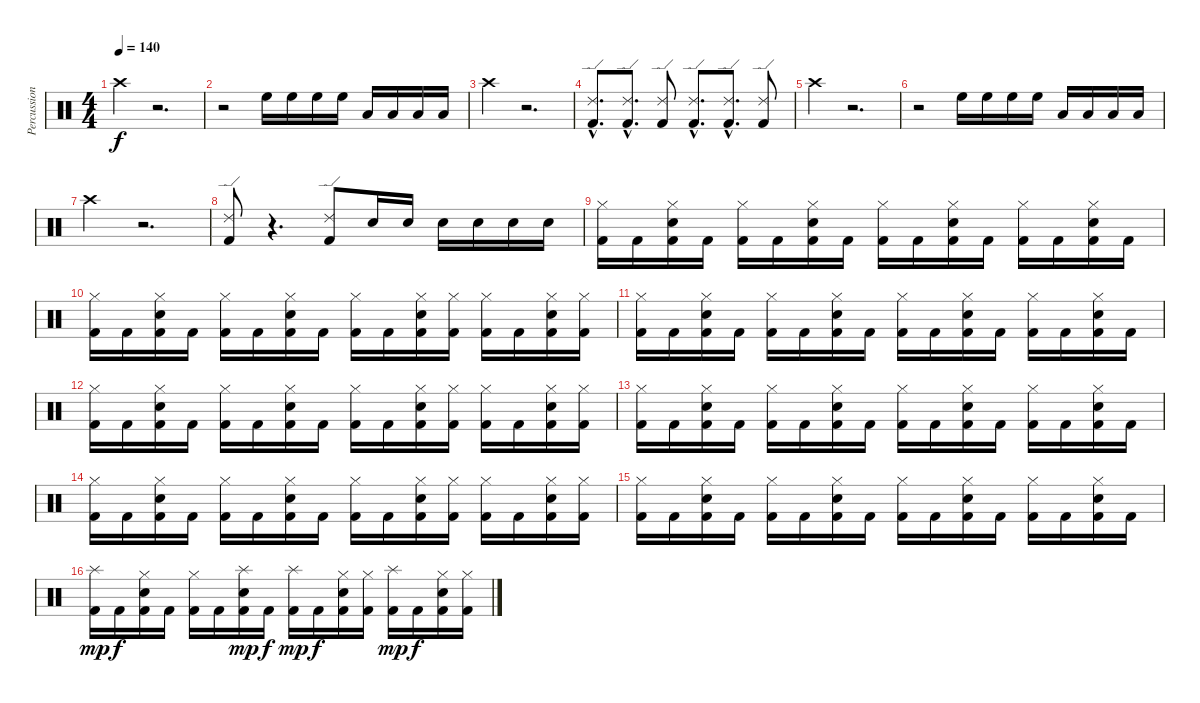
\track ("Percussion" "Percussion") {instrument percussion}
\staff {score}
\articulation defaults
\ts (4 4)
\tempo 140
\clef neutral
\ks c "Crash high (hit)".4{dy f}
r.2{d} |
r.2 "High Floor Tom (hit)".16 "High Floor Tom (hit)".16 "High Floor Tom (hit)".16 "High Floor Tom (hit)".16 "Low Tom (hit)".16 "Low Tom (hit)".16 "Low Tom (hit)".16 "Low Tom (hit)".16 |
"Crash high (hit)".4 r.2{d} |
("Ride (edge) 2"{hac} "Kick (hit) 2"{hac}).8{d} ("Ride (edge) 2"{hac} "Kick (hit) 2"{hac}).8{d} ("Ride (edge) 2" "Kick (hit) 2").8 ("Ride (edge) 2"{hac} "Kick (hit) 2"{hac}).8{d} ("Ride (edge) 2"{hac} "Kick (hit) 2"{hac}).8{d} ("Ride (edge) 2" "Kick (hit) 2").8 |
"Crash high (hit)".4 r.2{d} |
r.2 "High Floor Tom (hit)".16 "High Floor Tom (hit)".16 "High Floor Tom (hit)".16 "High Floor Tom (hit)".16 "Low Tom (hit)".16 "Low Tom (hit)".16 "Low Tom (hit)".16 "Low Tom (hit)".16 |
"Crash high (hit)".4 r.2{d} |
("Ride (edge) 2" "Kick (hit) 2").8 r.4{d} ("Ride (edge) 2" "Kick (hit) 2").8 "Electric Snare (hit)".16 "Electric Snare (hit)".16 "Electric Snare (hit)".16 "Electric Snare (hit)".16 "Electric Snare (hit)".16 "Electric Snare (hit)".16 |
("Hi-Hat (closed)" "Kick (hit) 2").16 "Kick (hit) 2".16 ("Hi-Hat (closed)" "Electric Snare (hit)" "Kick (hit) 2").16 "Kick (hit) 2".16 ("Hi-Hat (closed)" "Kick (hit) 2").16 "Kick (hit) 2".16 ("Hi-Hat (closed)" "Electric Snare (hit)" "Kick (hit) 2").16 "Kick (hit) 2".16 ("Hi-Hat (closed)" "Kick (hit) 2").16 "Kick (hit) 2".16 ("Hi-Hat (closed)" "Electric Snare (hit)" "Kick (hit) 2").16 "Kick (hit) 2".16 ("Hi-Hat (closed)" "Kick (hit) 2").16 "Kick (hit) 2".16 ("Hi-Hat (closed)" "Electric Snare (hit)" "Kick (hit) 2").16 "Kick (hit) 2".16 |
("Hi-Hat (closed)" "Kick (hit) 2").16 "Kick (hit) 2".16 ("Hi-Hat (closed)" "Electric Snare (hit)" "Kick (hit) 2").16 "Kick (hit) 2".16 ("Hi-Hat (closed)" "Kick (hit) 2").16 "Kick (hit) 2".16 ("Hi-Hat (closed)" "Electric Snare (hit)" "Kick (hit) 2").16 "Kick (hit) 2".16 ("Hi-Hat (closed)" "Kick (hit) 2").16 "Kick (hit) 2".16 ("Hi-Hat (closed)" "Electric Snare (hit)" "Kick (hit) 2").16 ("Hi-Hat (closed)" "Kick (hit) 2").16 ("Hi-Hat (closed)" "Kick (hit) 2").16 "Kick (hit) 2".16 ("Hi-Hat (closed)" "Electric Snare (hit)" "Kick (hit) 2").16 ("Hi-Hat (closed)" "Kick (hit) 2").16 |
("Hi-Hat (closed)" "Kick (hit) 2").16 "Kick (hit) 2".16 ("Hi-Hat (closed)" "Electric Snare (hit)" "Kick (hit) 2").16 "Kick (hit) 2".16 ("Hi-Hat (closed)" "Kick (hit) 2").16 "Kick (hit) 2".16 ("Hi-Hat (closed)" "Electric Snare (hit)" "Kick (hit) 2").16 "Kick (hit) 2".16 ("Hi-Hat (closed)" "Kick (hit) 2").16 "Kick (hit) 2".16 ("Hi-Hat (closed)" "Electric Snare (hit)" "Kick (hit) 2").16 "Kick (hit) 2".16 ("Hi-Hat (closed)" "Kick (hit) 2").16 "Kick (hit) 2".16 ("Hi-Hat (closed)" "Electric Snare (hit)" "Kick (hit) 2").16 "Kick (hit) 2".16 |
("Hi-Hat (closed)" "Kick (hit) 2").16 "Kick (hit) 2".16 ("Hi-Hat (closed)" "Electric Snare (hit)" "Kick (hit) 2").16 "Kick (hit) 2".16 ("Hi-Hat (closed)" "Kick (hit) 2").16 "Kick (hit) 2".16 ("Hi-Hat (closed)" "Electric Snare (hit)" "Kick (hit) 2").16 "Kick (hit) 2".16 ("Hi-Hat (closed)" "Kick (hit) 2").16 "Kick (hit) 2".16 ("Hi-Hat (closed)" "Electric Snare (hit)" "Kick (hit) 2").16 ("Hi-Hat (closed)" "Kick (hit) 2").16 ("Hi-Hat (closed)" "Kick (hit) 2").16 "Kick (hit) 2".16 ("Hi-Hat (closed)" "Electric Snare (hit)" "Kick (hit) 2").16 ("Hi-Hat (closed)" "Kick (hit) 2").16 |
("Hi-Hat (closed)" "Kick (hit) 2").16 "Kick (hit) 2".16 ("Hi-Hat (closed)" "Electric Snare (hit)" "Kick (hit) 2").16 "Kick (hit) 2".16 ("Hi-Hat (closed)" "Kick (hit) 2").16 "Kick (hit) 2".16 ("Hi-Hat (closed)" "Electric Snare (hit)" "Kick (hit) 2").16 "Kick (hit) 2".16 ("Hi-Hat (closed)" "Kick (hit) 2").16 "Kick (hit) 2".16 ("Hi-Hat (closed)" "Electric Snare (hit)" "Kick (hit) 2").16 "Kick (hit) 2".16 ("Hi-Hat (closed)" "Kick (hit) 2").16 "Kick (hit) 2".16 ("Hi-Hat (closed)" "Electric Snare (hit)" "Kick (hit) 2").16 "Kick (hit) 2".16 |
("Hi-Hat (closed)" "Kick (hit) 2").16 "Kick (hit) 2".16 ("Hi-Hat (closed)" "Electric Snare (hit)" "Kick (hit) 2").16 "Kick (hit) 2".16 ("Hi-Hat (closed)" "Kick (hit) 2").16 "Kick (hit) 2".16 ("Hi-Hat (closed)" "Electric Snare (hit)" "Kick (hit) 2").16 "Kick (hit) 2".16 ("Hi-Hat (closed)" "Kick (hit) 2").16 "Kick (hit) 2".16 ("Hi-Hat (closed)" "Electric Snare (hit)" "Kick (hit) 2").16 ("Hi-Hat (closed)" "Kick (hit) 2").16 ("Hi-Hat (closed)" "Kick (hit) 2").16 "Kick (hit) 2".16 ("Hi-Hat (closed)" "Electric Snare (hit)" "Kick (hit) 2").16 ("Hi-Hat (closed)" "Kick (hit) 2").16 |
("Hi-Hat (closed)" "Kick (hit) 2").16 "Kick (hit) 2".16 ("Hi-Hat (closed)" "Electric Snare (hit)" "Kick (hit) 2").16 "Kick (hit) 2".16 ("Hi-Hat (closed)" "Kick (hit) 2").16 "Kick (hit) 2".16 ("Hi-Hat (closed)" "Electric Snare (hit)" "Kick (hit) 2").16 "Kick (hit) 2".16 ("Hi-Hat (closed)" "Kick (hit) 2").16 "Kick (hit) 2".16 ("Hi-Hat (closed)" "Electric Snare (hit)" "Kick (hit) 2").16 "Kick (hit) 2".16 ("Hi-Hat (closed)" "Kick (hit) 2").16 "Kick (hit) 2".16 ("Hi-Hat (closed)" "Electric Snare (hit)" "Kick (hit) 2").16 "Kick (hit) 2".16 |
("Splash (hit)" "Kick (hit) 2").16{dy mp} "Kick (hit) 2".16{dy f} ("Hi-Hat (closed)" "Electric Snare (hit)" "Kick (hit) 2").16 "Kick (hit) 2".16 ("Hi-Hat (closed)" "Kick (hit) 2").16 "Kick (hit) 2".16 ("Splash (hit)" "Electric Snare (hit)" "Kick (hit) 2").16{dy mp} "Kick (hit) 2".16{dy f} ("Splash (hit)" "Kick (hit) 2").16{dy mp} "Kick (hit) 2".16{dy f} ("Hi-Hat (closed)" "Electric Snare (hit)" "Kick (hit) 2").16 ("Hi-Hat (closed)" "Kick (hit) 2").16 ("Splash (hit)" "Kick (hit) 2").16{dy mp} "Kick (hit) 2".16{dy f} ("Hi-Hat (closed)" "Electric Snare (hit)" "Kick (hit) 2").16 ("Hi-Hat (closed)" "Kick (hit) 2").16
